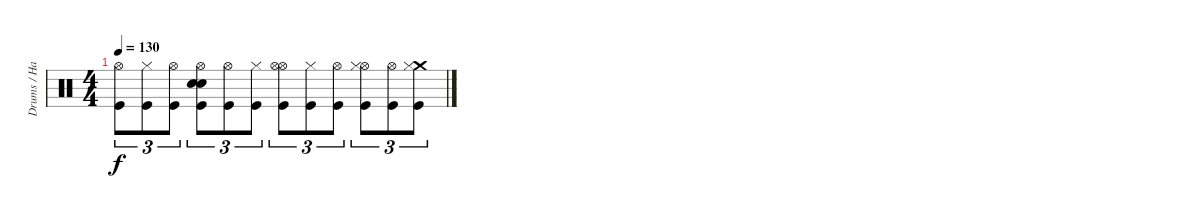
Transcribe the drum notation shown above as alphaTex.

\track ("Drums / Hammer of God" "Drums / Ha") {instrument percussion}
\staff {score}
\articulation defaults
\ts (4 4)
\tempo 130
\clef neutral
\ks c
("Hi-Hat (open)" "Kick (hit)").8{tu (3 2) dy f} ("Hi-Hat (closed)" "Kick (hit)").8{tu (3 2)} ("Hi-Hat (open)" "Kick (hit)").8{tu (3 2)} ("Snare (hit) 2" "Hi-Hat (open)" "Snare (hit) 2" "Kick (hit)").8{tu (3 2)} ("Hi-Hat (open)" "Kick (hit)").8{tu (3 2)} ("Hi-Hat (closed)" "Kick (hit)").8{tu (3 2)} ("Hi-Hat (open)" "Hi-Hat (open)" "Kick (hit)").8{tu (3 2)} ("Hi-Hat (closed)" "Kick (hit)").8{tu (3 2)} ("Hi-Hat (open)" "Kick (hit)").8{tu (3 2)} ("Hi-Hat (open)" "Hi-Hat (closed)" "Kick (hit)").8{tu (3 2)} ("Hi-Hat (open)" "Kick (hit)").8{tu (3 2)} ("Crash medium (hit)" "Hi-Hat (closed)" "Kick (hit)").8{tu (3 2)}
